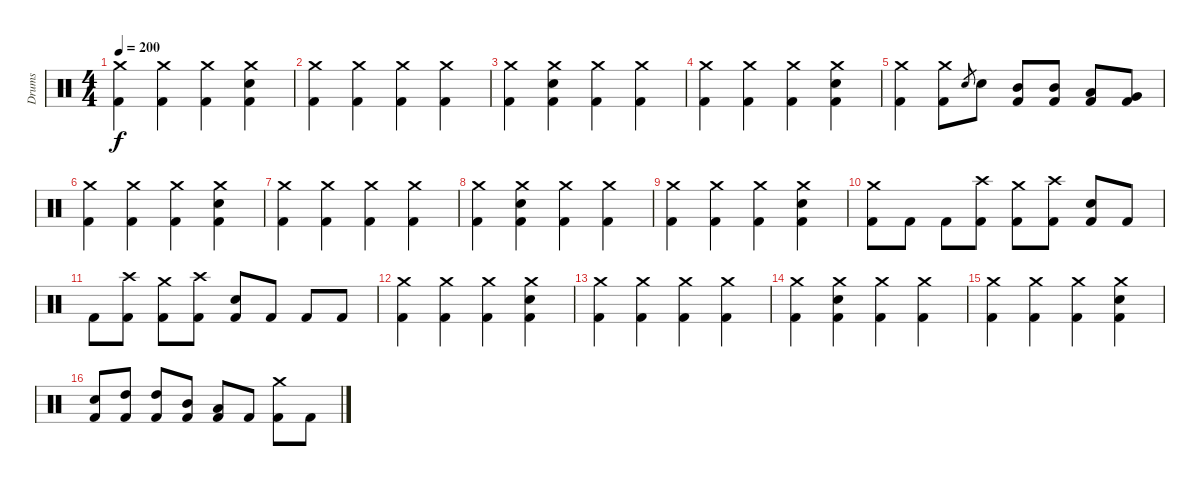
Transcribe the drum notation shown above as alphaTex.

\track ("Drums" "Drums") {instrument percussion}
\staff {score}
\articulation defaults
\ts (4 4)
\tempo 200
\clef neutral
\ks c
("Crash medium (hit)" "Kick (hit) 2").4{dy f} ("Crash medium (hit)" "Kick (hit) 2").4 ("Crash medium (hit)" "Kick (hit) 2").4 ("Crash medium (hit)" "Electric Snare (hit)" "Kick (hit) 2").4 |
("Crash medium (hit)" "Kick (hit) 2").4 ("Crash medium (hit)" "Kick (hit) 2").4 ("Crash medium (hit)" "Kick (hit) 2").4 ("Crash medium (hit)" "Kick (hit) 2").4 |
("Crash medium (hit)" "Kick (hit) 2").4 ("Crash medium (hit)" "Electric Snare (hit)" "Kick (hit) 2").4 ("Crash medium (hit)" "Kick (hit) 2").4 ("Crash medium (hit)" "Kick (hit) 2").4 |
("Crash medium (hit)" "Kick (hit) 2").4 ("Crash medium (hit)" "Kick (hit) 2").4 ("Crash medium (hit)" "Kick (hit) 2").4 ("Crash medium (hit)" "Electric Snare (hit)" "Kick (hit) 2").4 |
("Crash medium (hit)" "Kick (hit) 2").4 ("Crash medium (hit)" "Kick (hit) 2").8 "Electric Snare (hit)".8{gr} "Electric Snare (hit)".8 ("Mid Tom (hit)" "Kick (hit) 2").8 ("Mid Tom (hit)" "Kick (hit) 2").8 ("Low Tom (hit)" "Kick (hit) 2").8 ("Very Low Tom (hit)" "Kick (hit) 2").8 |
("Crash medium (hit)" "Kick (hit) 2").4 ("Crash medium (hit)" "Kick (hit) 2").4 ("Crash medium (hit)" "Kick (hit) 2").4 ("Crash medium (hit)" "Electric Snare (hit)" "Kick (hit) 2").4 |
("Crash medium (hit)" "Kick (hit) 2").4 ("Crash medium (hit)" "Kick (hit) 2").4 ("Crash medium (hit)" "Kick (hit) 2").4 ("Crash medium (hit)" "Kick (hit) 2").4 |
("Crash medium (hit)" "Kick (hit) 2").4 ("Crash medium (hit)" "Electric Snare (hit)" "Kick (hit) 2").4 ("Crash medium (hit)" "Kick (hit) 2").4 ("Crash medium (hit)" "Kick (hit) 2").4 |
("Crash medium (hit)" "Kick (hit) 2").4 ("Crash medium (hit)" "Kick (hit) 2").4 ("Crash medium (hit)" "Kick (hit) 2").4 ("Crash medium (hit)" "Electric Snare (hit)" "Kick (hit) 2").4 |
("Crash medium (hit)" "Kick (hit) 2").8 "Kick (hit) 2".8 "Kick (hit) 2".8 ("Crash high (hit)" "Kick (hit) 2").8 ("Crash medium (hit)" "Kick (hit) 2").8 ("Crash high (hit)" "Kick (hit) 2").8 ("Electric Snare (hit)" "Kick (hit) 2").8 "Kick (hit) 2".8 |
"Kick (hit) 2".8 ("Crash high (hit)" "Kick (hit) 2").8 ("Crash medium (hit)" "Kick (hit) 2").8 ("Crash high (hit)" "Kick (hit) 2").8 ("Electric Snare (hit)" "Kick (hit) 2").8 "Kick (hit) 2".8 "Kick (hit) 2".8 "Kick (hit) 2".8 |
("Crash medium (hit)" "Kick (hit) 2").4 ("Crash medium (hit)" "Kick (hit) 2").4 ("Crash medium (hit)" "Kick (hit) 2").4 ("Crash medium (hit)" "Electric Snare (hit)" "Kick (hit) 2").4 |
("Crash medium (hit)" "Kick (hit) 2").4 ("Crash medium (hit)" "Kick (hit) 2").4 ("Crash medium (hit)" "Kick (hit) 2").4 ("Crash medium (hit)" "Kick (hit) 2").4 |
("Crash medium (hit)" "Kick (hit) 2").4 ("Crash medium (hit)" "Electric Snare (hit)" "Kick (hit) 2").4 ("Crash medium (hit)" "Kick (hit) 2").4 ("Crash medium (hit)" "Kick (hit) 2").4 |
("Crash medium (hit)" "Kick (hit) 2").4 ("Crash medium (hit)" "Kick (hit) 2").4 ("Crash medium (hit)" "Kick (hit) 2").4 ("Crash medium (hit)" "Electric Snare (hit)" "Kick (hit) 2").4 |
("Electric Snare (hit)" "Kick (hit) 2").8 ("High Tom (hit)" "Kick (hit) 2").8 ("High Tom (hit)" "Kick (hit) 2").8 ("Mid Tom (hit)" "Kick (hit) 2").8 ("Low Tom (hit)" "Kick (hit) 2").8 "Kick (hit) 2".8 ("Crash medium (hit)" "Kick (hit) 2").8 "Kick (hit) 2".8
